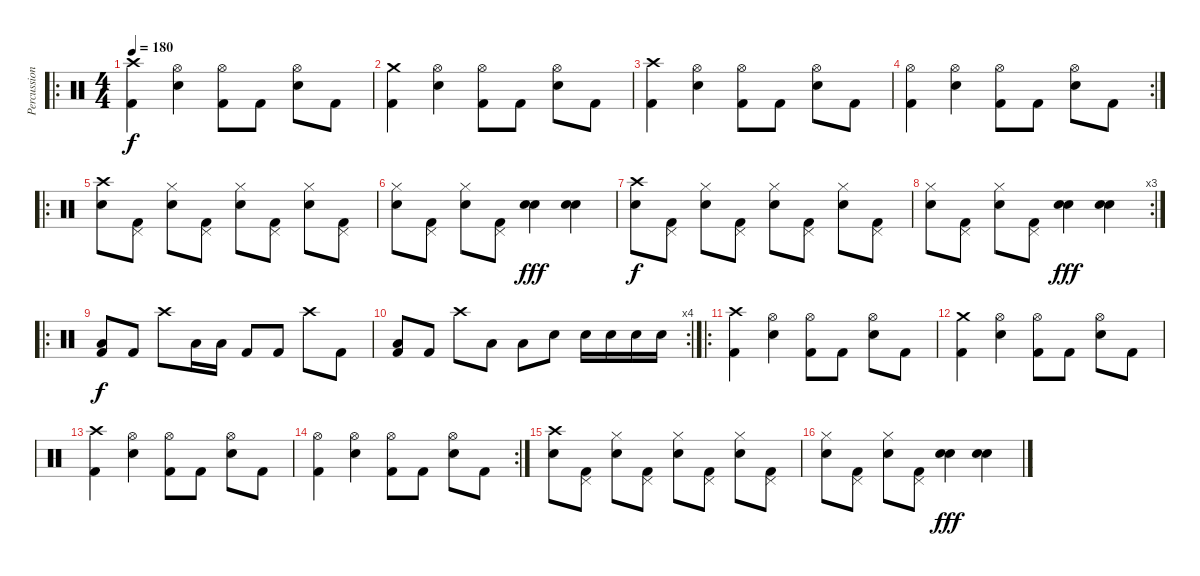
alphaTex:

\track ("Percussion" "Percussion") {instrument percussion}
\staff {score}
\articulation defaults
\ro
\ts (4 4)
\tempo 180
\clef neutral
\ks c
("Crash high (hit)" "Kick (hit) 2").4{dy f volume 13} ("Hi-Hat (open)" "Electric Snare (hit)").4 ("Hi-Hat (open)" "Kick (hit) 2").8 "Kick (hit) 2".8 ("Hi-Hat (open)" "Electric Snare (hit)").8 "Kick (hit) 2".8 |
("Crash medium (hit)" "Kick (hit) 2").4 ("Hi-Hat (open)" "Electric Snare (hit)").4 ("Hi-Hat (open)" "Kick (hit) 2").8 "Kick (hit) 2".8 ("Hi-Hat (open)" "Electric Snare (hit)").8 "Kick (hit) 2".8 |
("Crash high (hit)" "Kick (hit) 2").4 ("Hi-Hat (open)" "Electric Snare (hit)").4 ("Hi-Hat (open)" "Kick (hit) 2").8 "Kick (hit) 2".8 ("Hi-Hat (open)" "Electric Snare (hit)").8 "Kick (hit) 2".8 |
\rc 2
("Hi-Hat (open)" "Kick (hit) 2").4 ("Hi-Hat (open)" "Electric Snare (hit)").4 ("Hi-Hat (open)" "Kick (hit) 2").8 "Kick (hit) 2".8 ("Hi-Hat (open)" "Electric Snare (hit)").8 "Kick (hit) 2".8 |
\ro
("Crash high (hit)" "Snare (hit) 2").8 ("Pedal Hi-Hat (hit)" "Kick (hit) 2").8 ("Hi-Hat (closed)" "Snare (hit) 2").8 ("Pedal Hi-Hat (hit)" "Kick (hit) 2").8 ("Hi-Hat (closed)" "Snare (hit) 2").8 ("Pedal Hi-Hat (hit)" "Kick (hit) 2").8 ("Hi-Hat (closed)" "Snare (hit) 2").8 ("Pedal Hi-Hat (hit)" "Kick (hit) 2").8 |
("Hi-Hat (closed)" "Snare (hit) 2").8 ("Pedal Hi-Hat (hit)" "Kick (hit) 2").8 ("Hi-Hat (closed)" "Snare (hit) 2").8 ("Pedal Hi-Hat (hit)" "Kick (hit) 2").8 ("Snare (hit) 2" "Electric Snare (hit)").4{dy fff} ("Snare (hit) 2" "Electric Snare (hit)").4 |
("Crash high (hit)" "Snare (hit) 2").8{dy f} ("Pedal Hi-Hat (hit)" "Kick (hit) 2").8 ("Hi-Hat (closed)" "Snare (hit) 2").8 ("Pedal Hi-Hat (hit)" "Kick (hit) 2").8 ("Hi-Hat (closed)" "Snare (hit) 2").8 ("Pedal Hi-Hat (hit)" "Kick (hit) 2").8 ("Hi-Hat (closed)" "Snare (hit) 2").8 ("Pedal Hi-Hat (hit)" "Kick (hit) 2").8 |
\rc 3
("Hi-Hat (closed)" "Snare (hit) 2").8 ("Pedal Hi-Hat (hit)" "Kick (hit) 2").8 ("Hi-Hat (closed)" "Snare (hit) 2").8 ("Pedal Hi-Hat (hit)" "Kick (hit) 2").8 ("Snare (hit) 2" "Electric Snare (hit)").4{dy fff} ("Snare (hit) 2" "Electric Snare (hit)").4 |
\ro
("Low Tom (hit)" "Kick (hit) 2").8{dy f} "Kick (hit) 2".8 "Crash high (hit)".8 "Low Tom (hit)".16 "Low Floor Tom (hit)".16 "Kick (hit) 2".8 "Kick (hit) 2".8 "Crash high (hit)".8 "Kick (hit) 2".8 |
\rc 4
("Low Tom (hit)" "Kick (hit) 2").8 "Kick (hit) 2".8 "Crash high (hit)".8 "Low Tom (hit)".8 "Low Floor Tom (hit)".8 "Snare (hit) 2".8 "Snare (hit) 2".16 "Snare (hit) 2".16 "Snare (hit) 2".16 "Snare (hit) 2".16 |
\ro
("Crash high (hit)" "Kick (hit) 2").4{volume 13} ("Hi-Hat (open)" "Electric Snare (hit)").4 ("Hi-Hat (open)" "Kick (hit) 2").8 "Kick (hit) 2".8 ("Hi-Hat (open)" "Electric Snare (hit)").8 "Kick (hit) 2".8 |
("Crash medium (hit)" "Kick (hit) 2").4 ("Hi-Hat (open)" "Electric Snare (hit)").4 ("Hi-Hat (open)" "Kick (hit) 2").8 "Kick (hit) 2".8 ("Hi-Hat (open)" "Electric Snare (hit)").8 "Kick (hit) 2".8 |
("Crash high (hit)" "Kick (hit) 2").4 ("Hi-Hat (open)" "Electric Snare (hit)").4 ("Hi-Hat (open)" "Kick (hit) 2").8 "Kick (hit) 2".8 ("Hi-Hat (open)" "Electric Snare (hit)").8 "Kick (hit) 2".8 |
\rc 2
("Hi-Hat (open)" "Kick (hit) 2").4 ("Hi-Hat (open)" "Electric Snare (hit)").4 ("Hi-Hat (open)" "Kick (hit) 2").8 "Kick (hit) 2".8 ("Hi-Hat (open)" "Electric Snare (hit)").8 "Kick (hit) 2".8 |
("Crash high (hit)" "Snare (hit) 2").8 ("Pedal Hi-Hat (hit)" "Kick (hit) 2").8 ("Hi-Hat (closed)" "Snare (hit) 2").8 ("Pedal Hi-Hat (hit)" "Kick (hit) 2").8 ("Hi-Hat (closed)" "Snare (hit) 2").8 ("Pedal Hi-Hat (hit)" "Kick (hit) 2").8 ("Hi-Hat (closed)" "Snare (hit) 2").8 ("Pedal Hi-Hat (hit)" "Kick (hit) 2").8 |
("Hi-Hat (closed)" "Snare (hit) 2").8 ("Pedal Hi-Hat (hit)" "Kick (hit) 2").8 ("Hi-Hat (closed)" "Snare (hit) 2").8 ("Pedal Hi-Hat (hit)" "Kick (hit) 2").8 ("Snare (hit) 2" "Electric Snare (hit)").4{dy fff} ("Snare (hit) 2" "Electric Snare (hit)").4
